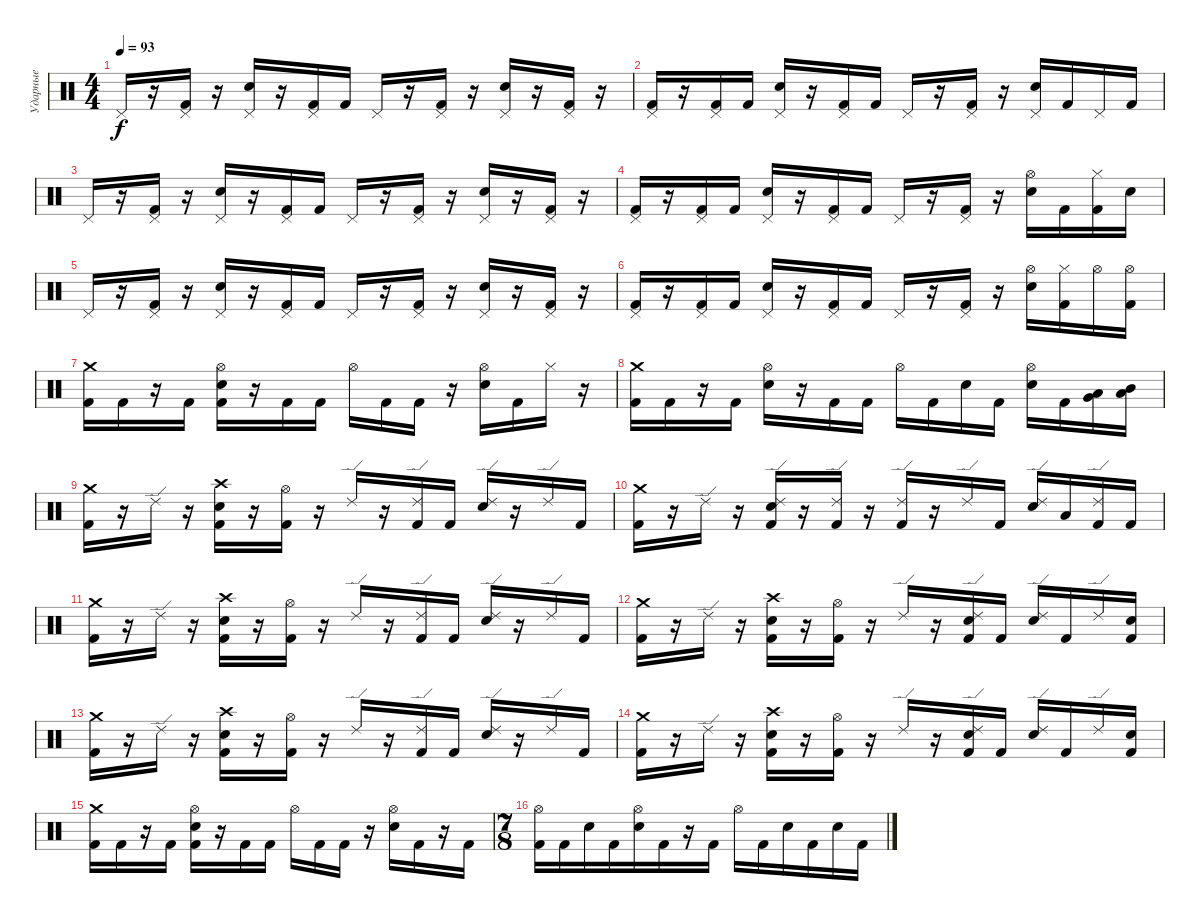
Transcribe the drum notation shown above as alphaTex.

\track ("Ударные" "Ударные") {instrument percussion}
\staff {score}
\articulation defaults
\ts (4 4)
\tempo 93
\clef neutral
\ks c "Pedal Hi-Hat (hit)".16{dy f}
r.16 ("Pedal Hi-Hat (hit)" "Kick (hit) 2").16 r.16 ("Pedal Hi-Hat (hit)" "Electric Snare (hit)").16 r.16 ("Pedal Hi-Hat (hit)" "Kick (hit) 2").16 "Kick (hit) 2".16 "Pedal Hi-Hat (hit)".16 r.16 ("Pedal Hi-Hat (hit)" "Kick (hit) 2").16 r.16 ("Pedal Hi-Hat (hit)" "Electric Snare (hit)").16 r.16 ("Pedal Hi-Hat (hit)" "Kick (hit) 2").16 r.16 |
("Pedal Hi-Hat (hit)" "Kick (hit) 2").16 r.16 ("Pedal Hi-Hat (hit)" "Kick (hit) 2").16 "Kick (hit) 2".16 ("Pedal Hi-Hat (hit)" "Electric Snare (hit)").16 r.16 ("Pedal Hi-Hat (hit)" "Kick (hit) 2").16 "Kick (hit) 2".16 "Pedal Hi-Hat (hit)".16 r.16 ("Pedal Hi-Hat (hit)" "Kick (hit) 2").16 r.16 ("Pedal Hi-Hat (hit)" "Electric Snare (hit)").16 "Kick (hit) 2".16 "Pedal Hi-Hat (hit)".16 "Kick (hit) 2".16 |
"Pedal Hi-Hat (hit)".16 r.16 ("Pedal Hi-Hat (hit)" "Kick (hit) 2").16 r.16 ("Pedal Hi-Hat (hit)" "Electric Snare (hit)").16 r.16 ("Pedal Hi-Hat (hit)" "Kick (hit) 2").16 "Kick (hit) 2".16 "Pedal Hi-Hat (hit)".16 r.16 ("Pedal Hi-Hat (hit)" "Kick (hit) 2").16 r.16 ("Pedal Hi-Hat (hit)" "Electric Snare (hit)").16 r.16 ("Pedal Hi-Hat (hit)" "Kick (hit) 2").16 r.16 |
("Pedal Hi-Hat (hit)" "Kick (hit) 2").16 r.16 ("Pedal Hi-Hat (hit)" "Kick (hit) 2").16 "Kick (hit) 2".16 ("Pedal Hi-Hat (hit)" "Electric Snare (hit)").16 r.16 ("Pedal Hi-Hat (hit)" "Kick (hit) 2").16 "Kick (hit) 2".16 "Pedal Hi-Hat (hit)".16 r.16 ("Pedal Hi-Hat (hit)" "Kick (hit) 2").16 r.16 ("Hi-Hat (open)" "Electric Snare (hit)").16 "Kick (hit) 2".16 ("Hi-Hat (closed)" "Kick (hit) 2").16 "Electric Snare (hit)".16 |
"Pedal Hi-Hat (hit)".16 r.16 ("Pedal Hi-Hat (hit)" "Kick (hit) 2").16 r.16 ("Pedal Hi-Hat (hit)" "Electric Snare (hit)").16 r.16 ("Pedal Hi-Hat (hit)" "Kick (hit) 2").16 "Kick (hit) 2".16 "Pedal Hi-Hat (hit)".16 r.16 ("Pedal Hi-Hat (hit)" "Kick (hit) 2").16 r.16 ("Pedal Hi-Hat (hit)" "Electric Snare (hit)").16 r.16 ("Pedal Hi-Hat (hit)" "Kick (hit) 2").16 r.16 |
("Pedal Hi-Hat (hit)" "Kick (hit) 2").16 r.16 ("Pedal Hi-Hat (hit)" "Kick (hit) 2").16 "Kick (hit) 2".16 ("Pedal Hi-Hat (hit)" "Electric Snare (hit)").16 r.16 ("Pedal Hi-Hat (hit)" "Kick (hit) 2").16 "Kick (hit) 2".16 "Pedal Hi-Hat (hit)".16 r.16 ("Pedal Hi-Hat (hit)" "Kick (hit) 2").16 r.16 ("Hi-Hat (open)" "Electric Snare (hit)").16 ("Hi-Hat (closed)" "Kick (hit) 2").16 "Hi-Hat (open)".16 ("Hi-Hat (open)" "Kick (hit) 2").16 |
("Crash medium (hit)" "Kick (hit) 2").16 "Kick (hit) 2".16 r.16 "Kick (hit) 2".16 ("Hi-Hat (open)" "Electric Snare (hit)" "Kick (hit) 2").16 r.16 "Kick (hit) 2".16 "Kick (hit) 2".16 "Hi-Hat (open)".16 "Kick (hit) 2".16 "Kick (hit) 2".16 r.16 ("Hi-Hat (open)" "Electric Snare (hit)").16 "Kick (hit) 2".16 "Hi-Hat (closed)".16 r.16 |
("Crash medium (hit)" "Kick (hit) 2").16 "Kick (hit) 2".16 r.16 "Kick (hit) 2".16 ("Hi-Hat (open)" "Electric Snare (hit)").16 r.16 "Kick (hit) 2".16 "Kick (hit) 2".16 "Hi-Hat (open)".16 "Kick (hit) 2".16 "Electric Snare (hit)".16 "Kick (hit) 2".16 ("Hi-Hat (open)" "Electric Snare (hit)").16 "Kick (hit) 2".16 ("Very Low Tom (hit)" "Low Tom (hit)").16 ("Low Tom (hit)" "Mid Tom (hit)").16 |
("Crash medium (hit)" "Kick (hit) 2").16 r.16 "Ride (edge) 2".16 r.16 ("Crash high (hit)" "Electric Snare (hit)" "Kick (hit) 2").16 r.16 ("Hi-Hat (open)" "Kick (hit) 2").16 r.16 "Ride (edge) 2".16 r.16 ("Ride (edge) 2" "Kick (hit) 2").16 "Kick (hit) 2".16 ("Ride (edge) 2" "Electric Snare (hit)").16 r.16 "Ride (edge) 2".16 "Kick (hit) 2".16 |
("Crash medium (hit)" "Kick (hit) 2").16 r.16 "Ride (edge) 2".16 r.16 ("Ride (edge) 2" "Electric Snare (hit)" "Kick (hit) 2").16 r.16 ("Ride (edge) 2" "Kick (hit) 2").16 r.16 ("Ride (edge) 2" "Kick (hit) 2").16 r.16 "Ride (edge) 2".16 "Kick (hit) 2".16 ("Ride (edge) 2" "Electric Snare (hit)").16 "Low Tom (hit)".16 ("Ride (edge) 2" "Kick (hit) 2").16 "Kick (hit) 2".16 |
("Crash medium (hit)" "Kick (hit) 2").16 r.16 "Ride (edge) 2".16 r.16 ("Crash high (hit)" "Electric Snare (hit)" "Kick (hit) 2").16 r.16 ("Hi-Hat (open)" "Kick (hit) 2").16 r.16 "Ride (edge) 2".16 r.16 ("Ride (edge) 2" "Kick (hit) 2").16 "Kick (hit) 2".16 ("Ride (edge) 2" "Electric Snare (hit)").16 r.16 "Ride (edge) 2".16 "Kick (hit) 2".16 |
("Crash medium (hit)" "Kick (hit) 2").16 r.16 "Ride (edge) 2".16 r.16 ("Crash high (hit)" "Electric Snare (hit)" "Kick (hit) 2").16 r.16 ("Hi-Hat (open)" "Kick (hit) 2").16 r.16 "Ride (edge) 2".16 r.16 ("Ride (edge) 2" "Electric Snare (hit)" "Kick (hit) 2").16 "Kick (hit) 2".16 ("Ride (edge) 2" "Electric Snare (hit)").16 "Kick (hit) 2".16 "Ride (edge) 2".16 ("Electric Snare (hit)" "Kick (hit) 2").16 |
("Crash medium (hit)" "Kick (hit) 2").16 r.16 "Ride (edge) 2".16 r.16 ("Crash high (hit)" "Electric Snare (hit)" "Kick (hit) 2").16 r.16 ("Hi-Hat (open)" "Kick (hit) 2").16 r.16 "Ride (edge) 2".16 r.16 ("Ride (edge) 2" "Kick (hit) 2").16 "Kick (hit) 2".16 ("Ride (edge) 2" "Electric Snare (hit)").16 r.16 "Ride (edge) 2".16 "Kick (hit) 2".16 |
("Crash medium (hit)" "Kick (hit) 2").16 r.16 "Ride (edge) 2".16 r.16 ("Crash high (hit)" "Electric Snare (hit)" "Kick (hit) 2").16 r.16 ("Hi-Hat (open)" "Kick (hit) 2").16 r.16 "Ride (edge) 2".16 r.16 ("Ride (edge) 2" "Electric Snare (hit)" "Kick (hit) 2").16 "Kick (hit) 2".16 ("Ride (edge) 2" "Electric Snare (hit)").16 "Kick (hit) 2".16 "Ride (edge) 2".16 ("Electric Snare (hit)" "Kick (hit) 2").16 |
("Crash medium (hit)" "Kick (hit) 2").16 "Kick (hit) 2".16 r.16 "Kick (hit) 2".16 ("Hi-Hat (open)" "Electric Snare (hit)" "Kick (hit) 2").16 r.16 "Kick (hit) 2".16 "Kick (hit) 2".16 "Hi-Hat (open)".16 "Kick (hit) 2".16 "Kick (hit) 2".16 r.16 ("Hi-Hat (open)" "Electric Snare (hit)").16 "Kick (hit) 2".16 r.16 "Kick (hit) 2".16 |
\ts (7 8)
("Hi-Hat (open)" "Kick (hit) 2").16 "Kick (hit) 2".16 "Electric Snare (hit)".16 "Kick (hit) 2".16 ("Hi-Hat (open)" "Electric Snare (hit)").16 "Kick (hit) 2".16 r.16 "Kick (hit) 2".16 "Hi-Hat (open)".16 "Kick (hit) 2".16 "Electric Snare (hit)".16 "Kick (hit) 2".16 "Electric Snare (hit)".16 "Kick (hit) 2".16
